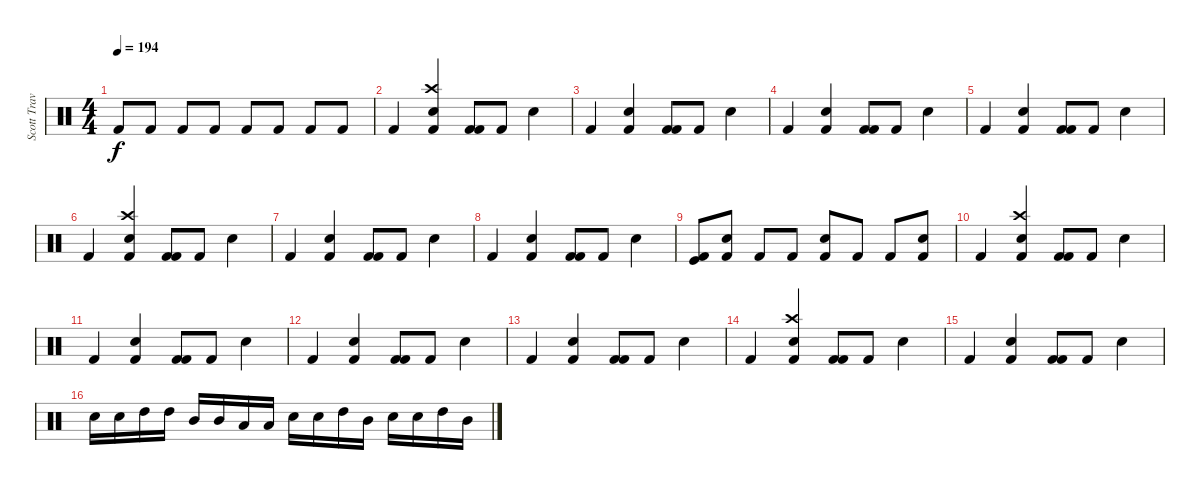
\track ("Scott Travis" "Scott Trav") {instrument percussion}
\staff {score}
\articulation defaults
\ts (4 4)
\tempo 194
\clef neutral
\ks c "Kick (hit) 2".8{dy f} "Kick (hit) 2".8 "Kick (hit) 2".8 "Kick (hit) 2".8 "Kick (hit) 2".8 "Kick (hit) 2".8 "Kick (hit) 2".8 "Kick (hit) 2".8
|
"Kick (hit) 2".4 ("Kick (hit) 2" "Crash high (hit)" "Snare (hit) 2").4 ("Kick (hit) 2" "Kick (hit) 2").8 "Kick (hit) 2".8 "Snare (hit) 2".4 |
"Kick (hit) 2".4 ("Kick (hit) 2" "Snare (hit) 2").4 ("Kick (hit) 2" "Kick (hit) 2").8 "Kick (hit) 2".8 "Snare (hit) 2".4 |
"Kick (hit) 2".4 ("Kick (hit) 2" "Snare (hit) 2").4 ("Kick (hit) 2" "Kick (hit) 2").8 "Kick (hit) 2".8 "Snare (hit) 2".4 |
"Kick (hit) 2".4 ("Kick (hit) 2" "Snare (hit) 2").4 ("Kick (hit) 2" "Kick (hit) 2").8 "Kick (hit) 2".8 "Snare (hit) 2".4 |
"Kick (hit) 2".4 ("Kick (hit) 2" "Crash high (hit)" "Snare (hit) 2").4 ("Kick (hit) 2" "Kick (hit) 2").8 "Kick (hit) 2".8 "Snare (hit) 2".4 |
"Kick (hit) 2".4 ("Kick (hit) 2" "Snare (hit) 2").4 ("Kick (hit) 2" "Kick (hit) 2").8 "Kick (hit) 2".8 "Snare (hit) 2".4 |
"Kick (hit) 2".4 ("Kick (hit) 2" "Snare (hit) 2").4 ("Kick (hit) 2" "Kick (hit) 2").8 "Kick (hit) 2".8 "Snare (hit) 2".4 |
("Kick (hit) 2" "Kick (hit)").8 ("Kick (hit) 2" "Snare (hit) 2").8 "Kick (hit) 2".8 "Kick (hit) 2".8 ("Kick (hit) 2" "Snare (hit) 2").8 "Kick (hit) 2".8 "Kick (hit) 2".8 ("Kick (hit) 2" "Snare (hit) 2").8 |
"Kick (hit) 2".4 ("Kick (hit) 2" "Crash high (hit)" "Snare (hit) 2").4 ("Kick (hit) 2" "Kick (hit) 2").8 "Kick (hit) 2".8 "Snare (hit) 2".4 |
"Kick (hit) 2".4 ("Kick (hit) 2" "Snare (hit) 2").4 ("Kick (hit) 2" "Kick (hit) 2").8 "Kick (hit) 2".8 "Snare (hit) 2".4 |
"Kick (hit) 2".4 ("Kick (hit) 2" "Snare (hit) 2").4 ("Kick (hit) 2" "Kick (hit) 2").8 "Kick (hit) 2".8 "Snare (hit) 2".4 |
"Kick (hit) 2".4 ("Kick (hit) 2" "Snare (hit) 2").4 ("Kick (hit) 2" "Kick (hit) 2").8 "Kick (hit) 2".8 "Snare (hit) 2".4 |
"Kick (hit) 2".4 ("Kick (hit) 2" "Crash high (hit)" "Snare (hit) 2").4 ("Kick (hit) 2" "Kick (hit) 2").8 "Kick (hit) 2".8 "Snare (hit) 2".4 |
"Kick (hit) 2".4 ("Kick (hit) 2" "Snare (hit) 2").4 ("Kick (hit) 2" "Kick (hit) 2").8 "Kick (hit) 2".8 "Snare (hit) 2".4 |
"Snare (hit) 2".16 "Snare (hit) 2".16 "High Tom (hit)".16 "High Tom (hit)".16 "Mid Tom (hit)".16 "Mid Tom (hit)".16 "Low Tom (hit)".16 "Low Tom (hit)".16 "Snare (hit) 2".16 "Snare (hit) 2".16 "High Tom (hit)".16 "Mid Tom (hit)".16 "Snare (hit) 2".16 "Snare (hit) 2".16 "High Tom (hit)".16 "Mid Tom (hit)".16
